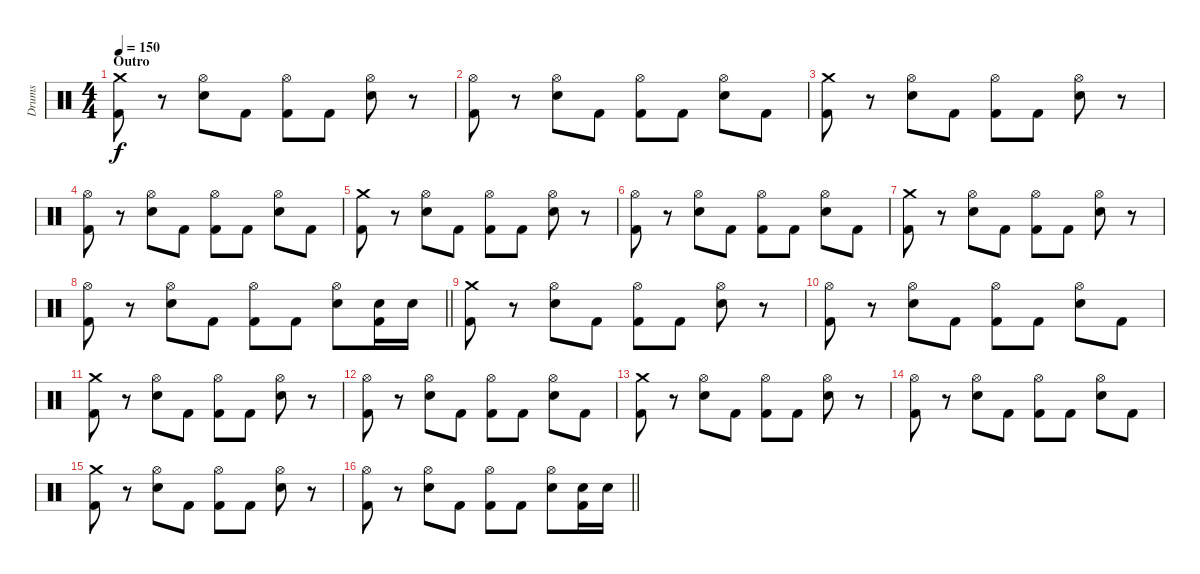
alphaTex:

\track ("Drums" "Drums") {instrument percussion}
\staff {score}
\articulation defaults
\ts (4 4)
\section ("" "Outro")
\tempo 150
\clef neutral
\ks c
("Crash medium (hit)" "Kick (hit) 2").8{dy f} r.8 ("Hi-Hat (open)" "Electric Snare (hit)").8 "Kick (hit) 2".8 ("Hi-Hat (open)" "Kick (hit) 2").8 "Kick (hit) 2".8 ("Hi-Hat (open)" "Electric Snare (hit)").8 r.8 |
("Hi-Hat (open)" "Kick (hit) 2").8 r.8 ("Hi-Hat (open)" "Electric Snare (hit)").8 "Kick (hit) 2".8 ("Hi-Hat (open)" "Kick (hit) 2").8 "Kick (hit) 2".8 ("Hi-Hat (open)" "Electric Snare (hit)").8 "Kick (hit) 2".8 |
("Crash medium (hit)" "Kick (hit) 2").8 r.8 ("Hi-Hat (open)" "Electric Snare (hit)").8 "Kick (hit) 2".8 ("Hi-Hat (open)" "Kick (hit) 2").8 "Kick (hit) 2".8 ("Hi-Hat (open)" "Electric Snare (hit)").8 r.8 |
("Hi-Hat (open)" "Kick (hit) 2").8 r.8 ("Hi-Hat (open)" "Electric Snare (hit)").8 "Kick (hit) 2".8 ("Hi-Hat (open)" "Kick (hit) 2").8 "Kick (hit) 2".8 ("Hi-Hat (open)" "Electric Snare (hit)").8 "Kick (hit) 2".8 |
("Crash medium (hit)" "Kick (hit) 2").8 r.8 ("Hi-Hat (open)" "Electric Snare (hit)").8 "Kick (hit) 2".8 ("Hi-Hat (open)" "Kick (hit) 2").8 "Kick (hit) 2".8 ("Hi-Hat (open)" "Electric Snare (hit)").8 r.8 |
("Hi-Hat (open)" "Kick (hit) 2").8 r.8 ("Hi-Hat (open)" "Electric Snare (hit)").8 "Kick (hit) 2".8 ("Hi-Hat (open)" "Kick (hit) 2").8 "Kick (hit) 2".8 ("Hi-Hat (open)" "Electric Snare (hit)").8 "Kick (hit) 2".8 |
("Crash medium (hit)" "Kick (hit) 2").8 r.8 ("Hi-Hat (open)" "Electric Snare (hit)").8 "Kick (hit) 2".8 ("Hi-Hat (open)" "Kick (hit) 2").8 "Kick (hit) 2".8 ("Hi-Hat (open)" "Electric Snare (hit)").8 r.8 |
\barLineRight lightlight
("Hi-Hat (open)" "Kick (hit) 2").8 r.8 ("Hi-Hat (open)" "Electric Snare (hit)").8 "Kick (hit) 2".8 ("Hi-Hat (open)" "Kick (hit) 2").8 "Kick (hit) 2".8 ("Hi-Hat (open)" "Electric Snare (hit)").8 ("Electric Snare (hit)" "Kick (hit) 2").16 "Electric Snare (hit)".16 |
("Crash medium (hit)" "Kick (hit) 2").8 r.8 ("Hi-Hat (open)" "Electric Snare (hit)").8 "Kick (hit) 2".8 ("Hi-Hat (open)" "Kick (hit) 2").8 "Kick (hit) 2".8 ("Hi-Hat (open)" "Electric Snare (hit)").8 r.8 |
("Hi-Hat (open)" "Kick (hit) 2").8 r.8 ("Hi-Hat (open)" "Electric Snare (hit)").8 "Kick (hit) 2".8 ("Hi-Hat (open)" "Kick (hit) 2").8 "Kick (hit) 2".8 ("Hi-Hat (open)" "Electric Snare (hit)").8 "Kick (hit) 2".8 |
("Crash medium (hit)" "Kick (hit) 2").8 r.8 ("Hi-Hat (open)" "Electric Snare (hit)").8 "Kick (hit) 2".8 ("Hi-Hat (open)" "Kick (hit) 2").8 "Kick (hit) 2".8 ("Hi-Hat (open)" "Electric Snare (hit)").8 r.8 |
("Hi-Hat (open)" "Kick (hit) 2").8 r.8 ("Hi-Hat (open)" "Electric Snare (hit)").8 "Kick (hit) 2".8 ("Hi-Hat (open)" "Kick (hit) 2").8 "Kick (hit) 2".8 ("Hi-Hat (open)" "Electric Snare (hit)").8 "Kick (hit) 2".8 |
("Crash medium (hit)" "Kick (hit) 2").8 r.8 ("Hi-Hat (open)" "Electric Snare (hit)").8 "Kick (hit) 2".8 ("Hi-Hat (open)" "Kick (hit) 2").8 "Kick (hit) 2".8 ("Hi-Hat (open)" "Electric Snare (hit)").8 r.8 |
("Hi-Hat (open)" "Kick (hit) 2").8 r.8 ("Hi-Hat (open)" "Electric Snare (hit)").8 "Kick (hit) 2".8 ("Hi-Hat (open)" "Kick (hit) 2").8 "Kick (hit) 2".8 ("Hi-Hat (open)" "Electric Snare (hit)").8 "Kick (hit) 2".8 |
("Crash medium (hit)" "Kick (hit) 2").8 r.8 ("Hi-Hat (open)" "Electric Snare (hit)").8 "Kick (hit) 2".8 ("Hi-Hat (open)" "Kick (hit) 2").8 "Kick (hit) 2".8 ("Hi-Hat (open)" "Electric Snare (hit)").8 r.8 |
\barLineRight lightlight
("Hi-Hat (open)" "Kick (hit) 2").8 r.8 ("Hi-Hat (open)" "Electric Snare (hit)").8 "Kick (hit) 2".8 ("Hi-Hat (open)" "Kick (hit) 2").8 "Kick (hit) 2".8 ("Hi-Hat (open)" "Electric Snare (hit)").8 ("Electric Snare (hit)" "Kick (hit) 2").16 "Electric Snare (hit)".16
